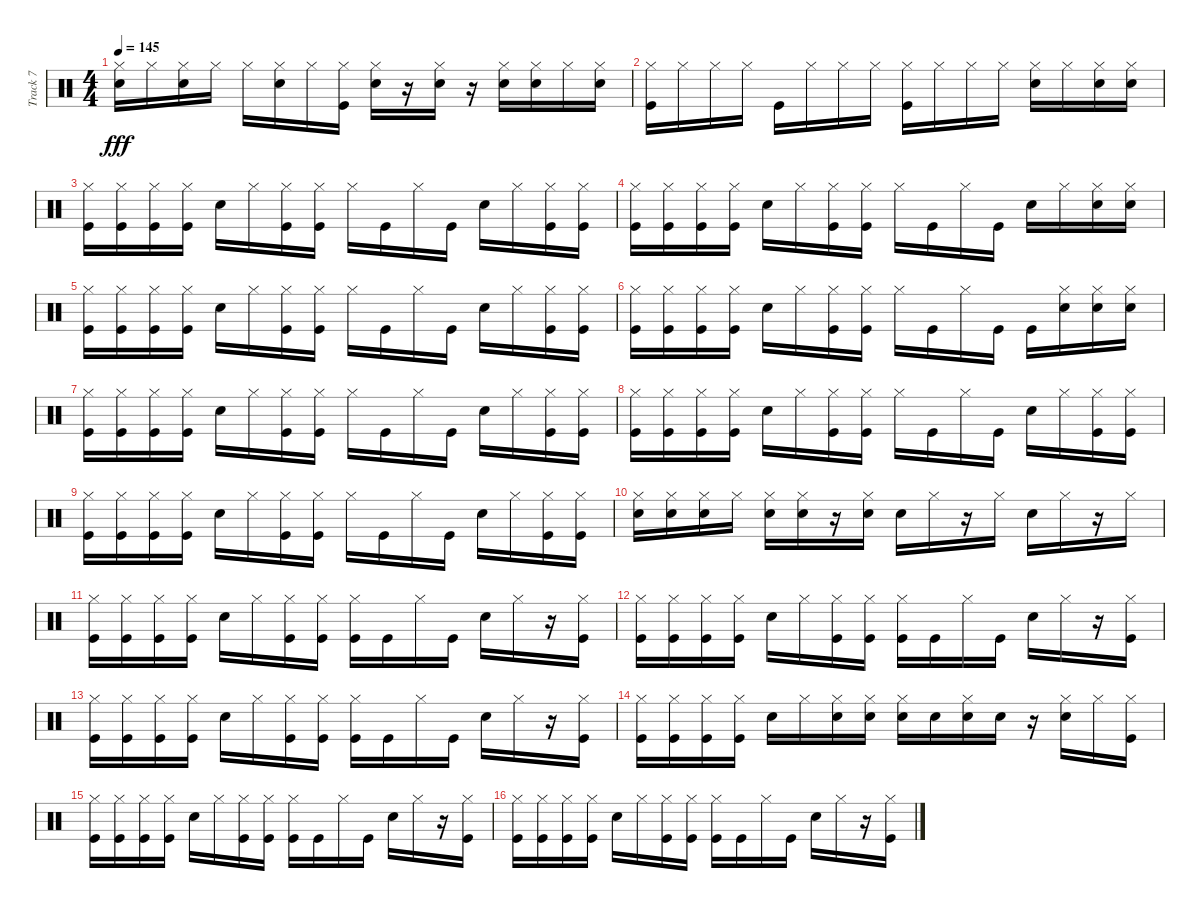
\track ("Track 7" "Track 7") {instrument percussion}
\staff {score}
\articulation defaults
\ts (4 4)
\tempo 145
\clef neutral
\ks c
("Snare (hit) 2" "Hi-Hat (closed)").16{dy fff} "Hi-Hat (closed)".16 ("Snare (hit) 2" "Hi-Hat (closed)").16 "Hi-Hat (closed)".16 "Hi-Hat (closed)".16 ("Snare (hit) 2" "Hi-Hat (closed)").16 "Hi-Hat (closed)".16 ("Kick (hit)" "Hi-Hat (closed)").16 ("Snare (hit) 2" "Hi-Hat (closed)").16 r.16 ("Snare (hit) 2" "Hi-Hat (closed)").16 r.16 ("Snare (hit) 2" "Hi-Hat (closed)").16 ("Snare (hit) 2" "Hi-Hat (closed)").16 "Hi-Hat (closed)".16 ("Snare (hit) 2" "Hi-Hat (closed)").16 |
("Kick (hit)" "Hi-Hat (closed)").16 "Hi-Hat (closed)".16 "Hi-Hat (closed)".16 "Hi-Hat (closed)".16 "Kick (hit)".16 "Hi-Hat (closed)".16 "Hi-Hat (closed)".16 "Hi-Hat (closed)".16 ("Kick (hit)" "Hi-Hat (closed)").16 "Hi-Hat (closed)".16 "Hi-Hat (closed)".16 "Hi-Hat (closed)".16 ("Snare (hit) 2" "Hi-Hat (closed)").16 "Hi-Hat (closed)".16 ("Snare (hit) 2" "Hi-Hat (closed)").16 ("Snare (hit) 2" "Hi-Hat (closed)").16 |
("Kick (hit)" "Hi-Hat (closed)").16 ("Kick (hit)" "Hi-Hat (closed)").16 ("Kick (hit)" "Hi-Hat (closed)").16 ("Kick (hit)" "Hi-Hat (closed)").16 "Snare (hit) 2".16 "Hi-Hat (closed)".16 ("Kick (hit)" "Hi-Hat (closed)").16 ("Kick (hit)" "Hi-Hat (closed)").16 "Hi-Hat (closed)".16 "Kick (hit)".16 "Hi-Hat (closed)".16 "Kick (hit)".16 "Snare (hit) 2".16 "Hi-Hat (closed)".16 ("Kick (hit)" "Hi-Hat (closed)").16 ("Kick (hit)" "Hi-Hat (closed)").16 |
("Kick (hit)" "Hi-Hat (closed)").16 ("Kick (hit)" "Hi-Hat (closed)").16 ("Kick (hit)" "Hi-Hat (closed)").16 ("Kick (hit)" "Hi-Hat (closed)").16 "Snare (hit) 2".16 "Hi-Hat (closed)".16 ("Kick (hit)" "Hi-Hat (closed)").16 ("Kick (hit)" "Hi-Hat (closed)").16 "Hi-Hat (closed)".16 "Kick (hit)".16 "Hi-Hat (closed)".16 "Kick (hit)".16 "Snare (hit) 2".16 "Hi-Hat (closed)".16 ("Snare (hit) 2" "Hi-Hat (closed)").16 ("Snare (hit) 2" "Hi-Hat (closed)").16 |
("Kick (hit)" "Hi-Hat (closed)").16 ("Kick (hit)" "Hi-Hat (closed)").16 ("Kick (hit)" "Hi-Hat (closed)").16 ("Kick (hit)" "Hi-Hat (closed)").16 "Snare (hit) 2".16 "Hi-Hat (closed)".16 ("Kick (hit)" "Hi-Hat (closed)").16 ("Kick (hit)" "Hi-Hat (closed)").16 "Hi-Hat (closed)".16 "Kick (hit)".16 "Hi-Hat (closed)".16 "Kick (hit)".16 "Snare (hit) 2".16 "Hi-Hat (closed)".16 ("Kick (hit)" "Hi-Hat (closed)").16 ("Kick (hit)" "Hi-Hat (closed)").16 |
("Kick (hit)" "Hi-Hat (closed)").16 ("Kick (hit)" "Hi-Hat (closed)").16 ("Kick (hit)" "Hi-Hat (closed)").16 ("Kick (hit)" "Hi-Hat (closed)").16 "Snare (hit) 2".16 "Hi-Hat (closed)".16 ("Kick (hit)" "Hi-Hat (closed)").16 ("Kick (hit)" "Hi-Hat (closed)").16 "Hi-Hat (closed)".16 "Kick (hit)".16 "Hi-Hat (closed)".16 "Kick (hit)".16 "Kick (hit)".16 ("Snare (hit) 2" "Hi-Hat (closed)").16 ("Snare (hit) 2" "Hi-Hat (closed)").16 ("Snare (hit) 2" "Hi-Hat (closed)").16 |
("Kick (hit)" "Hi-Hat (closed)").16 ("Kick (hit)" "Hi-Hat (closed)").16 ("Kick (hit)" "Hi-Hat (closed)").16 ("Kick (hit)" "Hi-Hat (closed)").16 "Snare (hit) 2".16 "Hi-Hat (closed)".16 ("Kick (hit)" "Hi-Hat (closed)").16 ("Kick (hit)" "Hi-Hat (closed)").16 "Hi-Hat (closed)".16 "Kick (hit)".16 "Hi-Hat (closed)".16 "Kick (hit)".16 "Snare (hit) 2".16 "Hi-Hat (closed)".16 ("Kick (hit)" "Hi-Hat (closed)").16 ("Kick (hit)" "Hi-Hat (closed)").16 |
("Kick (hit)" "Hi-Hat (closed)").16 ("Kick (hit)" "Hi-Hat (closed)").16 ("Kick (hit)" "Hi-Hat (closed)").16 ("Kick (hit)" "Hi-Hat (closed)").16 "Snare (hit) 2".16 "Hi-Hat (closed)".16 ("Kick (hit)" "Hi-Hat (closed)").16 ("Kick (hit)" "Hi-Hat (closed)").16 "Hi-Hat (closed)".16 "Kick (hit)".16 "Hi-Hat (closed)".16 "Kick (hit)".16 "Snare (hit) 2".16 "Hi-Hat (closed)".16 ("Kick (hit)" "Hi-Hat (closed)").16 ("Kick (hit)" "Hi-Hat (closed)").16 |
("Kick (hit)" "Hi-Hat (closed)").16 ("Kick (hit)" "Hi-Hat (closed)").16 ("Kick (hit)" "Hi-Hat (closed)").16 ("Kick (hit)" "Hi-Hat (closed)").16 "Snare (hit) 2".16 "Hi-Hat (closed)".16 ("Kick (hit)" "Hi-Hat (closed)").16 ("Kick (hit)" "Hi-Hat (closed)").16 "Hi-Hat (closed)".16 "Kick (hit)".16 "Hi-Hat (closed)".16 "Kick (hit)".16 "Snare (hit) 2".16 "Hi-Hat (closed)".16 ("Kick (hit)" "Hi-Hat (closed)").16 ("Kick (hit)" "Hi-Hat (closed)").16 |
("Snare (hit) 2" "Hi-Hat (closed)").16 ("Snare (hit) 2" "Hi-Hat (closed)").16 ("Snare (hit) 2" "Hi-Hat (closed)").16 "Hi-Hat (closed)".16 ("Snare (hit) 2" "Hi-Hat (closed)").16 ("Snare (hit) 2" "Hi-Hat (closed)").16 r.16 ("Snare (hit) 2" "Hi-Hat (closed)").16 "Snare (hit) 2".16 "Hi-Hat (closed)".16 r.16 "Hi-Hat (closed)".16 "Snare (hit) 2".16 "Hi-Hat (closed)".16 r.16 "Hi-Hat (closed)".16 |
("Kick (hit)" "Hi-Hat (closed)").16 ("Kick (hit)" "Hi-Hat (closed)").16 ("Kick (hit)" "Hi-Hat (closed)").16 ("Kick (hit)" "Hi-Hat (closed)").16 "Snare (hit) 2".16 "Hi-Hat (closed)".16 ("Kick (hit)" "Hi-Hat (closed)").16 ("Kick (hit)" "Hi-Hat (closed)").16 ("Kick (hit)" "Hi-Hat (closed)").16 "Kick (hit)".16 "Hi-Hat (closed)".16 "Kick (hit)".16 "Snare (hit) 2".16 "Hi-Hat (closed)".16 r.16 ("Kick (hit)" "Hi-Hat (closed)").16 |
("Kick (hit)" "Hi-Hat (closed)").16 ("Kick (hit)" "Hi-Hat (closed)").16 ("Kick (hit)" "Hi-Hat (closed)").16 ("Kick (hit)" "Hi-Hat (closed)").16 "Snare (hit) 2".16 "Hi-Hat (closed)".16 ("Kick (hit)" "Hi-Hat (closed)").16 ("Kick (hit)" "Hi-Hat (closed)").16 ("Kick (hit)" "Hi-Hat (closed)").16 "Kick (hit)".16 "Hi-Hat (closed)".16 "Kick (hit)".16 "Snare (hit) 2".16 "Hi-Hat (closed)".16 r.16 ("Kick (hit)" "Hi-Hat (closed)").16 |
("Kick (hit)" "Hi-Hat (closed)").16 ("Kick (hit)" "Hi-Hat (closed)").16 ("Kick (hit)" "Hi-Hat (closed)").16 ("Kick (hit)" "Hi-Hat (closed)").16 "Snare (hit) 2".16 "Hi-Hat (closed)".16 ("Kick (hit)" "Hi-Hat (closed)").16 ("Kick (hit)" "Hi-Hat (closed)").16 ("Kick (hit)" "Hi-Hat (closed)").16 "Kick (hit)".16 "Hi-Hat (closed)".16 "Kick (hit)".16 "Snare (hit) 2".16 "Hi-Hat (closed)".16 r.16 ("Kick (hit)" "Hi-Hat (closed)").16 |
("Kick (hit)" "Hi-Hat (closed)").16 ("Kick (hit)" "Hi-Hat (closed)").16 ("Kick (hit)" "Hi-Hat (closed)").16 ("Kick (hit)" "Hi-Hat (closed)").16 "Snare (hit) 2".16 "Hi-Hat (closed)".16 ("Snare (hit) 2" "Hi-Hat (closed)").16 ("Snare (hit) 2" "Hi-Hat (closed)").16 ("Snare (hit) 2" "Hi-Hat (closed)").16 "Snare (hit) 2".16 ("Snare (hit) 2" "Hi-Hat (closed)").16 "Snare (hit) 2".16 r.16 ("Snare (hit) 2" "Hi-Hat (closed)").16 "Hi-Hat (closed)".16 ("Kick (hit)" "Hi-Hat (closed)").16 |
("Kick (hit)" "Hi-Hat (closed)").16 ("Kick (hit)" "Hi-Hat (closed)").16 ("Kick (hit)" "Hi-Hat (closed)").16 ("Kick (hit)" "Hi-Hat (closed)").16 "Snare (hit) 2".16 "Hi-Hat (closed)".16 ("Kick (hit)" "Hi-Hat (closed)").16 ("Kick (hit)" "Hi-Hat (closed)").16 ("Kick (hit)" "Hi-Hat (closed)").16 "Kick (hit)".16 "Hi-Hat (closed)".16 "Kick (hit)".16 "Snare (hit) 2".16 "Hi-Hat (closed)".16 r.16 ("Kick (hit)" "Hi-Hat (closed)").16 |
("Kick (hit)" "Hi-Hat (closed)").16 ("Kick (hit)" "Hi-Hat (closed)").16 ("Kick (hit)" "Hi-Hat (closed)").16 ("Kick (hit)" "Hi-Hat (closed)").16 "Snare (hit) 2".16 "Hi-Hat (closed)".16 ("Kick (hit)" "Hi-Hat (closed)").16 ("Kick (hit)" "Hi-Hat (closed)").16 ("Kick (hit)" "Hi-Hat (closed)").16 "Kick (hit)".16 "Hi-Hat (closed)".16 "Kick (hit)".16 "Snare (hit) 2".16 "Hi-Hat (closed)".16 r.16 ("Kick (hit)" "Hi-Hat (closed)").16
